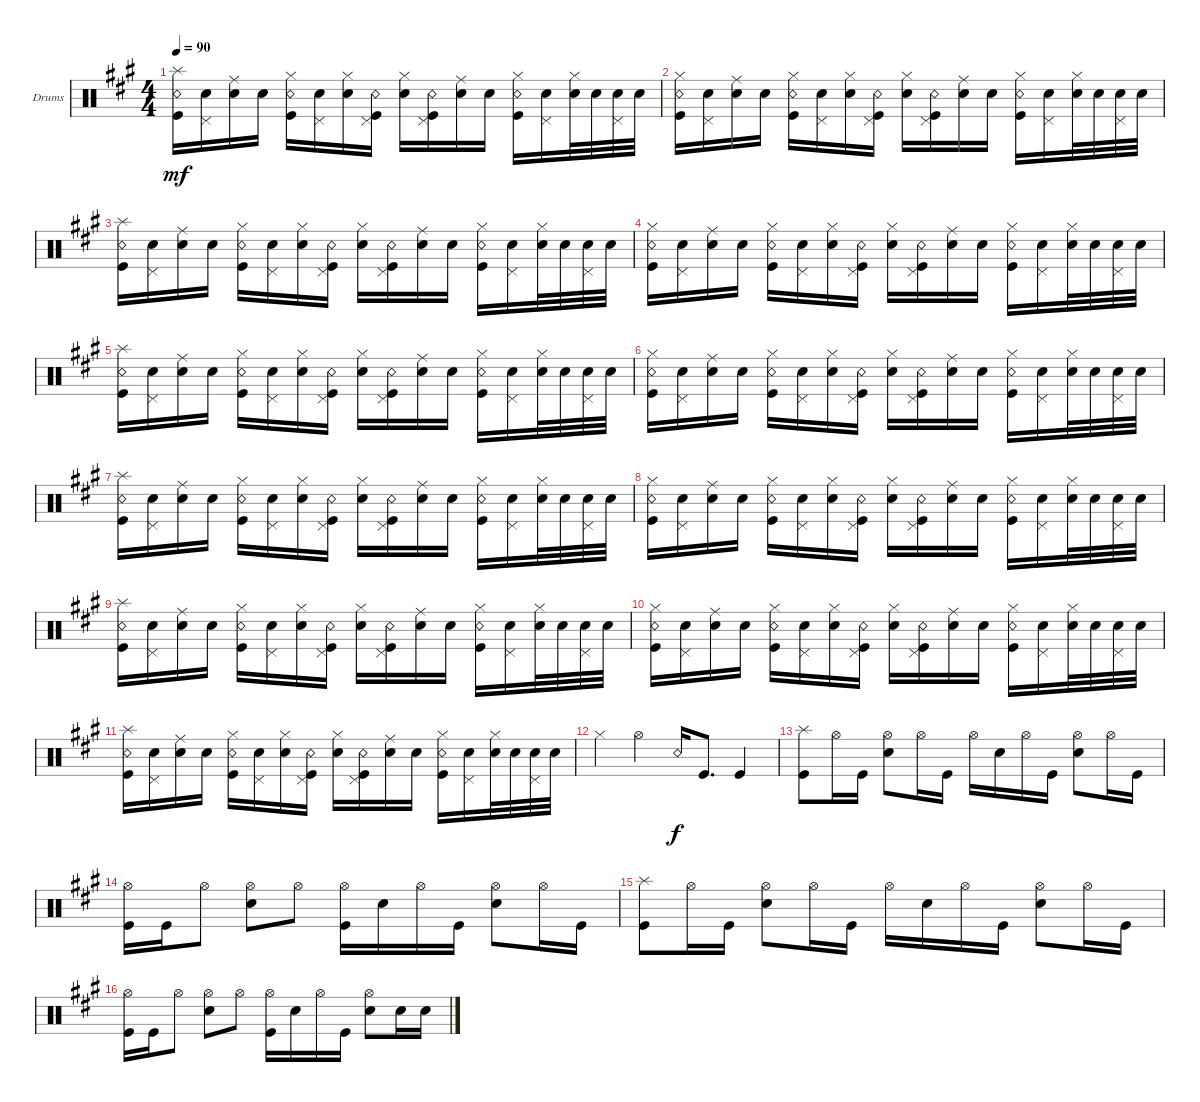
\bracketExtendMode groupsimilarinstruments
\firstSystemTrackNameOrientation horizontal
\otherSystemsTrackNameOrientation horizontal
\track ("Drumkit" "Drums") {instrument percussion}
\staff {score}
\articulation defaults
\ts (4 4)
\tempo 90
\clef neutral
\ks f#minor
("Kick (hit)" "Snare (rim shot)" "Splash (hit)").16{dy mf} ("Snare (hit) 2" "Pedal Hi-Hat (hit)").16 ("Snare (hit) 2" "Ride (middle)").16 "Snare (hit) 2".16 ("Snare (rim shot)" "Kick (hit)" "Hi-Hat (closed)").16 ("Snare (hit) 2" "Pedal Hi-Hat (hit)").16 ("Snare (hit) 2" "Hi-Hat (closed)").16 ("Kick (hit)" "Snare (rim shot)" "Pedal Hi-Hat (hit)").16 ("Snare (hit) 2" "Hi-Hat (closed)").16 ("Kick (hit)" "Snare (rim shot)" "Pedal Hi-Hat (hit)").16 ("Snare (hit) 2" "Ride (middle)").16 "Snare (hit) 2".16 ("Snare (rim shot)" "Kick (hit)" "Hi-Hat (closed)").16 ("Snare (hit) 2" "Pedal Hi-Hat (hit)").16 ("Snare (hit) 2" "Hi-Hat (closed)").32 "Snare (hit) 2".32 ("Snare (hit) 2" "Pedal Hi-Hat (hit)").32 "Snare (hit) 2".32 |
("Kick (hit)" "Snare (rim shot)" "Hi-Hat (closed)").16 ("Snare (hit) 2" "Pedal Hi-Hat (hit)").16 ("Snare (hit) 2" "Ride (middle)").16 "Snare (hit) 2".16 ("Snare (rim shot)" "Kick (hit)" "Hi-Hat (closed)").16 ("Snare (hit) 2" "Pedal Hi-Hat (hit)").16 ("Snare (hit) 2" "Hi-Hat (closed)").16 ("Kick (hit)" "Snare (rim shot)" "Pedal Hi-Hat (hit)").16 ("Snare (hit) 2" "Hi-Hat (closed)").16 ("Kick (hit)" "Snare (rim shot)" "Pedal Hi-Hat (hit)").16 ("Snare (hit) 2" "Ride (middle)").16 "Snare (hit) 2".16 ("Snare (rim shot)" "Kick (hit)" "Hi-Hat (closed)").16 ("Snare (hit) 2" "Pedal Hi-Hat (hit)").16 ("Snare (hit) 2" "Hi-Hat (closed)").32 "Snare (hit) 2".32 ("Snare (hit) 2" "Pedal Hi-Hat (hit)").32 "Snare (hit) 2".32 |
("Kick (hit)" "Snare (rim shot)" "Splash (hit)").16 ("Snare (hit) 2" "Pedal Hi-Hat (hit)").16 ("Snare (hit) 2" "Ride (middle)").16 "Snare (hit) 2".16 ("Snare (rim shot)" "Kick (hit)" "Hi-Hat (closed)").16 ("Snare (hit) 2" "Pedal Hi-Hat (hit)").16 ("Snare (hit) 2" "Hi-Hat (closed)").16 ("Kick (hit)" "Snare (rim shot)" "Pedal Hi-Hat (hit)").16 ("Snare (hit) 2" "Hi-Hat (closed)").16 ("Kick (hit)" "Snare (rim shot)" "Pedal Hi-Hat (hit)").16 ("Snare (hit) 2" "Ride (middle)").16 "Snare (hit) 2".16 ("Snare (rim shot)" "Kick (hit)" "Hi-Hat (closed)").16 ("Snare (hit) 2" "Pedal Hi-Hat (hit)").16 ("Snare (hit) 2" "Hi-Hat (closed)").32 "Snare (hit) 2".32 ("Snare (hit) 2" "Pedal Hi-Hat (hit)").32 "Snare (hit) 2".32 |
("Kick (hit)" "Snare (rim shot)" "Hi-Hat (closed)").16 ("Snare (hit) 2" "Pedal Hi-Hat (hit)").16 ("Snare (hit) 2" "Ride (middle)").16 "Snare (hit) 2".16 ("Snare (rim shot)" "Kick (hit)" "Hi-Hat (closed)").16 ("Snare (hit) 2" "Pedal Hi-Hat (hit)").16 ("Snare (hit) 2" "Hi-Hat (closed)").16 ("Kick (hit)" "Snare (rim shot)" "Pedal Hi-Hat (hit)").16 ("Snare (hit) 2" "Hi-Hat (closed)").16 ("Kick (hit)" "Snare (rim shot)" "Pedal Hi-Hat (hit)").16 ("Snare (hit) 2" "Ride (middle)").16 "Snare (hit) 2".16 ("Snare (rim shot)" "Kick (hit)" "Hi-Hat (closed)").16 ("Snare (hit) 2" "Pedal Hi-Hat (hit)").16 ("Snare (hit) 2" "Hi-Hat (closed)").32 "Snare (hit) 2".32 ("Snare (hit) 2" "Pedal Hi-Hat (hit)").32 "Snare (hit) 2".32 |
("Kick (hit)" "Snare (rim shot)" "Splash (hit)").16 ("Snare (hit) 2" "Pedal Hi-Hat (hit)").16 ("Snare (hit) 2" "Ride (middle)").16 "Snare (hit) 2".16 ("Snare (rim shot)" "Kick (hit)" "Hi-Hat (closed)").16 ("Snare (hit) 2" "Pedal Hi-Hat (hit)").16 ("Snare (hit) 2" "Hi-Hat (closed)").16 ("Kick (hit)" "Snare (rim shot)" "Pedal Hi-Hat (hit)").16 ("Snare (hit) 2" "Hi-Hat (closed)").16 ("Kick (hit)" "Snare (rim shot)" "Pedal Hi-Hat (hit)").16 ("Snare (hit) 2" "Ride (middle)").16 "Snare (hit) 2".16 ("Snare (rim shot)" "Kick (hit)" "Hi-Hat (closed)").16 ("Snare (hit) 2" "Pedal Hi-Hat (hit)").16 ("Snare (hit) 2" "Hi-Hat (closed)").32 "Snare (hit) 2".32 ("Snare (hit) 2" "Pedal Hi-Hat (hit)").32 "Snare (hit) 2".32 |
("Kick (hit)" "Snare (rim shot)" "Hi-Hat (closed)").16 ("Snare (hit) 2" "Pedal Hi-Hat (hit)").16 ("Snare (hit) 2" "Ride (middle)").16 "Snare (hit) 2".16 ("Snare (rim shot)" "Kick (hit)" "Hi-Hat (closed)").16 ("Snare (hit) 2" "Pedal Hi-Hat (hit)").16 ("Snare (hit) 2" "Hi-Hat (closed)").16 ("Kick (hit)" "Snare (rim shot)" "Pedal Hi-Hat (hit)").16 ("Snare (hit) 2" "Hi-Hat (closed)").16 ("Kick (hit)" "Snare (rim shot)" "Pedal Hi-Hat (hit)").16 ("Snare (hit) 2" "Ride (middle)").16 "Snare (hit) 2".16 ("Snare (rim shot)" "Kick (hit)" "Hi-Hat (closed)").16 ("Snare (hit) 2" "Pedal Hi-Hat (hit)").16 ("Snare (hit) 2" "Hi-Hat (closed)").32 "Snare (hit) 2".32 ("Snare (hit) 2" "Pedal Hi-Hat (hit)").32 "Snare (hit) 2".32 |
("Kick (hit)" "Snare (rim shot)" "Splash (hit)").16 ("Snare (hit) 2" "Pedal Hi-Hat (hit)").16 ("Snare (hit) 2" "Ride (middle)").16 "Snare (hit) 2".16 ("Snare (rim shot)" "Kick (hit)" "Hi-Hat (closed)").16 ("Snare (hit) 2" "Pedal Hi-Hat (hit)").16 ("Snare (hit) 2" "Hi-Hat (closed)").16 ("Kick (hit)" "Snare (rim shot)" "Pedal Hi-Hat (hit)").16 ("Snare (hit) 2" "Hi-Hat (closed)").16 ("Kick (hit)" "Snare (rim shot)" "Pedal Hi-Hat (hit)").16 ("Snare (hit) 2" "Ride (middle)").16 "Snare (hit) 2".16 ("Snare (rim shot)" "Kick (hit)" "Hi-Hat (closed)").16 ("Snare (hit) 2" "Pedal Hi-Hat (hit)").16 ("Snare (hit) 2" "Hi-Hat (closed)").32 "Snare (hit) 2".32 ("Snare (hit) 2" "Pedal Hi-Hat (hit)").32 "Snare (hit) 2".32 |
("Kick (hit)" "Snare (rim shot)" "Hi-Hat (closed)").16 ("Snare (hit) 2" "Pedal Hi-Hat (hit)").16 ("Snare (hit) 2" "Ride (middle)").16 "Snare (hit) 2".16 ("Snare (rim shot)" "Kick (hit)" "Hi-Hat (closed)").16 ("Snare (hit) 2" "Pedal Hi-Hat (hit)").16 ("Snare (hit) 2" "Hi-Hat (closed)").16 ("Kick (hit)" "Snare (rim shot)" "Pedal Hi-Hat (hit)").16 ("Snare (hit) 2" "Hi-Hat (closed)").16 ("Kick (hit)" "Snare (rim shot)" "Pedal Hi-Hat (hit)").16 ("Snare (hit) 2" "Ride (middle)").16 "Snare (hit) 2".16 ("Snare (rim shot)" "Kick (hit)" "Hi-Hat (closed)").16 ("Snare (hit) 2" "Pedal Hi-Hat (hit)").16 ("Snare (hit) 2" "Hi-Hat (closed)").32 "Snare (hit) 2".32 ("Snare (hit) 2" "Pedal Hi-Hat (hit)").32 "Snare (hit) 2".32 |
("Kick (hit)" "Snare (rim shot)" "Splash (hit)").16 ("Snare (hit) 2" "Pedal Hi-Hat (hit)").16 ("Snare (hit) 2" "Ride (middle)").16 "Snare (hit) 2".16 ("Snare (rim shot)" "Kick (hit)" "Hi-Hat (closed)").16 ("Snare (hit) 2" "Pedal Hi-Hat (hit)").16 ("Snare (hit) 2" "Hi-Hat (closed)").16 ("Kick (hit)" "Snare (rim shot)" "Pedal Hi-Hat (hit)").16 ("Snare (hit) 2" "Hi-Hat (closed)").16 ("Kick (hit)" "Snare (rim shot)" "Pedal Hi-Hat (hit)").16 ("Snare (hit) 2" "Ride (middle)").16 "Snare (hit) 2".16 ("Snare (rim shot)" "Kick (hit)" "Hi-Hat (closed)").16 ("Snare (hit) 2" "Pedal Hi-Hat (hit)").16 ("Snare (hit) 2" "Hi-Hat (closed)").32 "Snare (hit) 2".32 ("Snare (hit) 2" "Pedal Hi-Hat (hit)").32 "Snare (hit) 2".32 |
("Kick (hit)" "Snare (rim shot)" "Hi-Hat (closed)").16 ("Snare (hit) 2" "Pedal Hi-Hat (hit)").16 ("Snare (hit) 2" "Ride (middle)").16 "Snare (hit) 2".16 ("Snare (rim shot)" "Kick (hit)" "Hi-Hat (closed)").16 ("Snare (hit) 2" "Pedal Hi-Hat (hit)").16 ("Snare (hit) 2" "Hi-Hat (closed)").16 ("Kick (hit)" "Snare (rim shot)" "Pedal Hi-Hat (hit)").16 ("Snare (hit) 2" "Hi-Hat (closed)").16 ("Kick (hit)" "Snare (rim shot)" "Pedal Hi-Hat (hit)").16 ("Snare (hit) 2" "Ride (middle)").16 "Snare (hit) 2".16 ("Snare (rim shot)" "Kick (hit)" "Hi-Hat (closed)").16 ("Snare (hit) 2" "Pedal Hi-Hat (hit)").16 ("Snare (hit) 2" "Hi-Hat (closed)").32 "Snare (hit) 2".32 ("Snare (hit) 2" "Pedal Hi-Hat (hit)").32 "Snare (hit) 2".32 |
("Kick (hit)" "Snare (rim shot)" "Splash (hit)").16 ("Snare (hit) 2" "Pedal Hi-Hat (hit)").16 ("Snare (hit) 2" "Ride (middle)").16 "Snare (hit) 2".16 ("Snare (rim shot)" "Kick (hit)" "Hi-Hat (closed)").16 ("Snare (hit) 2" "Pedal Hi-Hat (hit)").16 ("Snare (hit) 2" "Hi-Hat (closed)").16 ("Kick (hit)" "Snare (rim shot)" "Pedal Hi-Hat (hit)").16 ("Snare (hit) 2" "Hi-Hat (closed)").16 ("Kick (hit)" "Snare (rim shot)" "Pedal Hi-Hat (hit)").16 ("Snare (hit) 2" "Ride (middle)").16 "Snare (hit) 2".16 ("Snare (rim shot)" "Kick (hit)" "Hi-Hat (closed)").16 ("Snare (hit) 2" "Pedal Hi-Hat (hit)").16 ("Snare (hit) 2" "Hi-Hat (closed)").32 "Snare (hit) 2".32 ("Snare (hit) 2" "Pedal Hi-Hat (hit)").32 "Snare (hit) 2".32 |
"Hi-Hat (closed)".4 "Hi-Hat (open)".4 "Snare (rim shot)".16{dy f} "Kick (hit)".8{d} "Kick (hit)".4 |
("Kick (hit)" "Splash (hit)").8 "Hi-Hat (open)".16 "Kick (hit)".16 ("Snare (hit) 2" "Hi-Hat (open)").8 "Hi-Hat (open)".16 "Kick (hit)".16 "Hi-Hat (open)".16 "Snare (hit) 2".16 "Hi-Hat (open)".16 "Kick (hit)".16 ("Snare (hit) 2" "Hi-Hat (open)").8 "Hi-Hat (open)".16 "Kick (hit)".16 |
("Hi-Hat (open)" "Kick (hit)").16 "Kick (hit)".16 "Hi-Hat (open)".8 ("Snare (hit) 2" "Hi-Hat (open)").8 "Hi-Hat (open)".8 ("Kick (hit)" "Hi-Hat (open)").16 "Snare (hit) 2".16 "Hi-Hat (open)".16 "Kick (hit)".16 ("Snare (hit) 2" "Hi-Hat (open)").8 "Hi-Hat (open)".16 "Kick (hit)".16 |
("Kick (hit)" "Splash (hit)").8 "Hi-Hat (open)".16 "Kick (hit)".16 ("Snare (hit) 2" "Hi-Hat (open)").8 "Hi-Hat (open)".16 "Kick (hit)".16 "Hi-Hat (open)".16 "Snare (hit) 2".16 "Hi-Hat (open)".16 "Kick (hit)".16 ("Snare (hit) 2" "Hi-Hat (open)").8 "Hi-Hat (open)".16 "Kick (hit)".16 |
("Hi-Hat (open)" "Kick (hit)").16 "Kick (hit)".16 "Hi-Hat (open)".8 ("Snare (hit) 2" "Hi-Hat (open)").8 "Hi-Hat (open)".8 ("Kick (hit)" "Hi-Hat (open)").16 "Snare (hit) 2".16 "Hi-Hat (open)".16 "Kick (hit)".16 ("Snare (hit) 2" "Hi-Hat (open)").8 "Snare (hit) 2".16 "Snare (hit) 2".16
